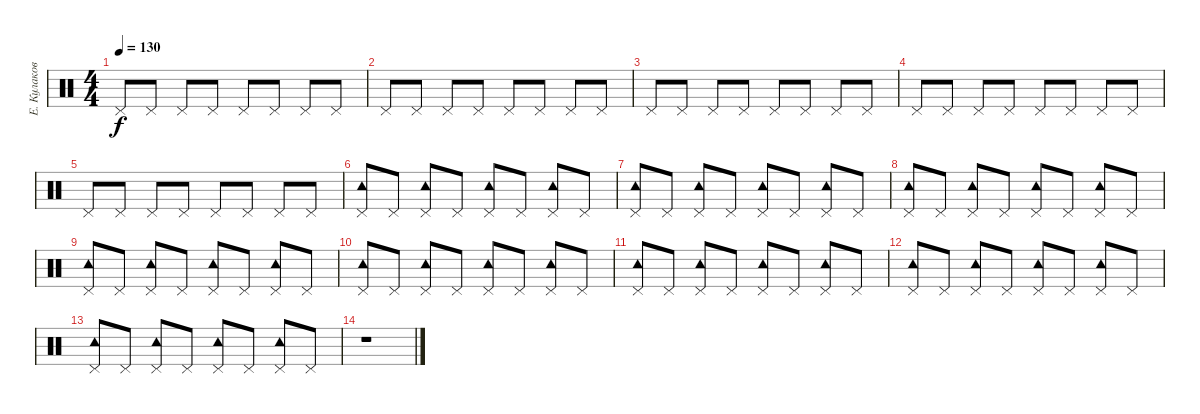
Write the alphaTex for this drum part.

\track ("Е. Кулаков Hi-Hat" "Е. Кулаков") {instrument percussion}
\staff {score}
\articulation defaults
\ts (4 4)
\tempo 130
\clef neutral
\ks c "Pedal Hi-Hat (hit)".8{dy f} "Pedal Hi-Hat (hit)".8 "Pedal Hi-Hat (hit)".8 "Pedal Hi-Hat (hit)".8 "Pedal Hi-Hat (hit)".8 "Pedal Hi-Hat (hit)".8 "Pedal Hi-Hat (hit)".8 "Pedal Hi-Hat (hit)".8
|
"Pedal Hi-Hat (hit)".8 "Pedal Hi-Hat (hit)".8 "Pedal Hi-Hat (hit)".8 "Pedal Hi-Hat (hit)".8 "Pedal Hi-Hat (hit)".8 "Pedal Hi-Hat (hit)".8 "Pedal Hi-Hat (hit)".8 "Pedal Hi-Hat (hit)".8 |
"Pedal Hi-Hat (hit)".8 "Pedal Hi-Hat (hit)".8 "Pedal Hi-Hat (hit)".8 "Pedal Hi-Hat (hit)".8 "Pedal Hi-Hat (hit)".8 "Pedal Hi-Hat (hit)".8 "Pedal Hi-Hat (hit)".8 "Pedal Hi-Hat (hit)".8 |
"Pedal Hi-Hat (hit)".8 "Pedal Hi-Hat (hit)".8 "Pedal Hi-Hat (hit)".8 "Pedal Hi-Hat (hit)".8 "Pedal Hi-Hat (hit)".8 "Pedal Hi-Hat (hit)".8 "Pedal Hi-Hat (hit)".8 "Pedal Hi-Hat (hit)".8 |
"Pedal Hi-Hat (hit)".8 "Pedal Hi-Hat (hit)".8 "Pedal Hi-Hat (hit)".8 "Pedal Hi-Hat (hit)".8 "Pedal Hi-Hat (hit)".8 "Pedal Hi-Hat (hit)".8 "Pedal Hi-Hat (hit)".8 "Pedal Hi-Hat (hit)".8 |
("Pedal Hi-Hat (hit)" "Tambourine (hit)").8 "Pedal Hi-Hat (hit)".8 ("Pedal Hi-Hat (hit)" "Tambourine (hit)").8 "Pedal Hi-Hat (hit)".8 ("Pedal Hi-Hat (hit)" "Tambourine (hit)").8 "Pedal Hi-Hat (hit)".8 ("Pedal Hi-Hat (hit)" "Tambourine (hit)").8 "Pedal Hi-Hat (hit)".8 |
("Pedal Hi-Hat (hit)" "Tambourine (hit)").8 "Pedal Hi-Hat (hit)".8 ("Pedal Hi-Hat (hit)" "Tambourine (hit)").8 "Pedal Hi-Hat (hit)".8 ("Pedal Hi-Hat (hit)" "Tambourine (hit)").8 "Pedal Hi-Hat (hit)".8 ("Pedal Hi-Hat (hit)" "Tambourine (hit)").8 "Pedal Hi-Hat (hit)".8 |
("Pedal Hi-Hat (hit)" "Tambourine (hit)").8 "Pedal Hi-Hat (hit)".8 ("Pedal Hi-Hat (hit)" "Tambourine (hit)").8 "Pedal Hi-Hat (hit)".8 ("Pedal Hi-Hat (hit)" "Tambourine (hit)").8 "Pedal Hi-Hat (hit)".8 ("Pedal Hi-Hat (hit)" "Tambourine (hit)").8 "Pedal Hi-Hat (hit)".8 |
("Pedal Hi-Hat (hit)" "Tambourine (hit)").8 "Pedal Hi-Hat (hit)".8 ("Pedal Hi-Hat (hit)" "Tambourine (hit)").8 "Pedal Hi-Hat (hit)".8 ("Pedal Hi-Hat (hit)" "Tambourine (hit)").8 "Pedal Hi-Hat (hit)".8 ("Pedal Hi-Hat (hit)" "Tambourine (hit)").8 "Pedal Hi-Hat (hit)".8 |
("Pedal Hi-Hat (hit)" "Tambourine (hit)").8 "Pedal Hi-Hat (hit)".8 ("Pedal Hi-Hat (hit)" "Tambourine (hit)").8 "Pedal Hi-Hat (hit)".8 ("Pedal Hi-Hat (hit)" "Tambourine (hit)").8 "Pedal Hi-Hat (hit)".8 ("Pedal Hi-Hat (hit)" "Tambourine (hit)").8 "Pedal Hi-Hat (hit)".8 |
("Pedal Hi-Hat (hit)" "Tambourine (hit)").8 "Pedal Hi-Hat (hit)".8 ("Pedal Hi-Hat (hit)" "Tambourine (hit)").8 "Pedal Hi-Hat (hit)".8 ("Pedal Hi-Hat (hit)" "Tambourine (hit)").8 "Pedal Hi-Hat (hit)".8 ("Pedal Hi-Hat (hit)" "Tambourine (hit)").8 "Pedal Hi-Hat (hit)".8 |
("Pedal Hi-Hat (hit)" "Tambourine (hit)").8 "Pedal Hi-Hat (hit)".8 ("Pedal Hi-Hat (hit)" "Tambourine (hit)").8 "Pedal Hi-Hat (hit)".8 ("Pedal Hi-Hat (hit)" "Tambourine (hit)").8 "Pedal Hi-Hat (hit)".8 ("Pedal Hi-Hat (hit)" "Tambourine (hit)").8 "Pedal Hi-Hat (hit)".8 |
("Pedal Hi-Hat (hit)" "Tambourine (hit)").8 "Pedal Hi-Hat (hit)".8 ("Pedal Hi-Hat (hit)" "Tambourine (hit)").8 "Pedal Hi-Hat (hit)".8 ("Pedal Hi-Hat (hit)" "Tambourine (hit)").8 "Pedal Hi-Hat (hit)".8 ("Pedal Hi-Hat (hit)" "Tambourine (hit)").8 "Pedal Hi-Hat (hit)".8 |
r.1
